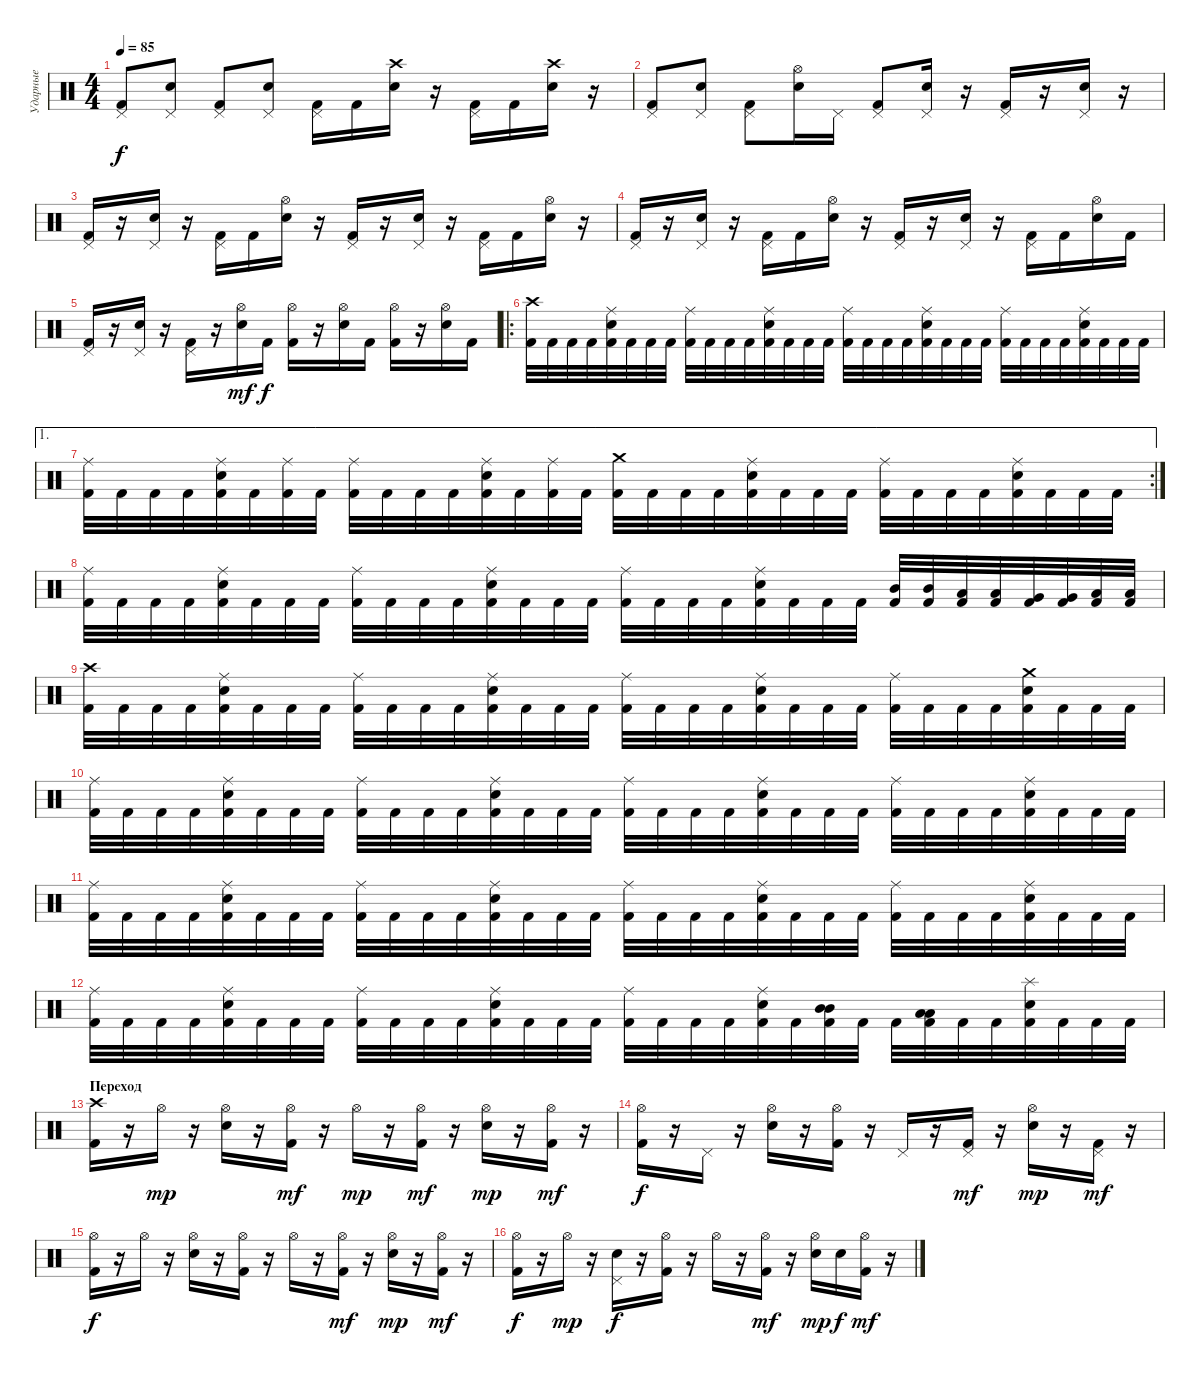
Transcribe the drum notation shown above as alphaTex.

\track ("Ударные" "Ударные") {instrument percussion}
\staff {score}
\articulation defaults
\ts (4 4)
\tempo 85
\clef neutral
\ks c
("Pedal Hi-Hat (hit)" "Kick (hit) 2").8{dy f} ("Pedal Hi-Hat (hit)" "Snare (hit) 2").8 ("Pedal Hi-Hat (hit)" "Kick (hit) 2").8 ("Pedal Hi-Hat (hit)" "Snare (hit) 2").8 ("Pedal Hi-Hat (hit)" "Kick (hit) 2").16 "Kick (hit) 2".16 ("Crash high (hit)" "Snare (hit) 2").16 r.16 ("Pedal Hi-Hat (hit)" "Kick (hit) 2").16 "Kick (hit) 2".16 ("Crash high (hit)" "Snare (hit) 2").16 r.16 |
("Pedal Hi-Hat (hit)" "Kick (hit) 2").8 ("Pedal Hi-Hat (hit)" "Snare (hit) 2").8 ("Pedal Hi-Hat (hit)" "Kick (hit) 2").8 ("Hi-Hat (open)" "Snare (hit) 2").16 "Pedal Hi-Hat (hit)".16 ("Pedal Hi-Hat (hit)" "Kick (hit) 2").8 ("Pedal Hi-Hat (hit)" "Snare (hit) 2").16 r.16 ("Pedal Hi-Hat (hit)" "Kick (hit) 2").16 r.16 ("Pedal Hi-Hat (hit)" "Snare (hit) 2").16 r.16 |
("Pedal Hi-Hat (hit)" "Kick (hit) 2").16 r.16 ("Pedal Hi-Hat (hit)" "Snare (hit) 2").16 r.16 ("Pedal Hi-Hat (hit)" "Kick (hit) 2").16 "Kick (hit) 2".16 ("Hi-Hat (open)" "Snare (hit) 2").16 r.16 ("Pedal Hi-Hat (hit)" "Kick (hit) 2").16 r.16 ("Pedal Hi-Hat (hit)" "Snare (hit) 2").16 r.16 ("Pedal Hi-Hat (hit)" "Kick (hit) 2").16 "Kick (hit) 2".16 ("Hi-Hat (open)" "Snare (hit) 2").16 r.16 |
("Pedal Hi-Hat (hit)" "Kick (hit) 2").16 r.16 ("Pedal Hi-Hat (hit)" "Snare (hit) 2").16 r.16 ("Pedal Hi-Hat (hit)" "Kick (hit) 2").16 "Kick (hit) 2".16 ("Hi-Hat (open)" "Snare (hit) 2").16 r.16 ("Pedal Hi-Hat (hit)" "Kick (hit) 2").16 r.16 ("Pedal Hi-Hat (hit)" "Snare (hit) 2").16 r.16 ("Pedal Hi-Hat (hit)" "Kick (hit) 2").16 "Kick (hit) 2".16 ("Hi-Hat (open)" "Snare (hit) 2").16 "Kick (hit) 2".16 |
("Pedal Hi-Hat (hit)" "Kick (hit) 2").16 r.16 ("Pedal Hi-Hat (hit)" "Snare (hit) 2").16 r.16 ("Pedal Hi-Hat (hit)" "Kick (hit) 2").16 r.16 ("Hi-Hat (open)" "Snare (hit) 2").16{dy mf} "Kick (hit) 2".16{dy f} ("Hi-Hat (open)" "Kick (hit) 2").16 r.16 ("Hi-Hat (open)" "Snare (hit) 2").16 "Kick (hit) 2".16 ("Hi-Hat (open)" "Kick (hit) 2").16 r.16 ("Hi-Hat (open)" "Snare (hit) 2").16 "Kick (hit) 2".16 |
\ro
("Crash high (hit)" "Kick (hit) 2").32 "Kick (hit) 2".32 "Kick (hit) 2".32 "Kick (hit) 2".32 ("Ride (middle)" "Snare (hit) 2" "Kick (hit) 2").32 "Kick (hit) 2".32 "Kick (hit) 2".32 "Kick (hit) 2".32 ("Ride (middle)" "Kick (hit) 2").32 "Kick (hit) 2".32 "Kick (hit) 2".32 "Kick (hit) 2".32 ("Ride (middle)" "Snare (hit) 2" "Kick (hit) 2").32 "Kick (hit) 2".32 "Kick (hit) 2".32 "Kick (hit) 2".32 ("Ride (middle)" "Kick (hit) 2").32 "Kick (hit) 2".32 "Kick (hit) 2".32 "Kick (hit) 2".32 ("Ride (middle)" "Snare (hit) 2" "Kick (hit) 2").32 "Kick (hit) 2".32 "Kick (hit) 2".32 "Kick (hit) 2".32 ("Ride (middle)" "Kick (hit) 2").32 "Kick (hit) 2".32 "Kick (hit) 2".32 "Kick (hit) 2".32 ("Ride (middle)" "Snare (hit) 2" "Kick (hit) 2").32 "Kick (hit) 2".32 "Kick (hit) 2".32 "Kick (hit) 2".32 |
\ae 1
\rc 2
("Ride (middle)" "Kick (hit) 2").32 "Kick (hit) 2".32 "Kick (hit) 2".32 "Kick (hit) 2".32 ("Ride (middle)" "Snare (hit) 2" "Kick (hit) 2").32 "Kick (hit) 2".32 ("Ride (middle)" "Kick (hit) 2").32 "Kick (hit) 2".32 ("Ride (middle)" "Kick (hit) 2").32 "Kick (hit) 2".32 "Kick (hit) 2".32 "Kick (hit) 2".32 ("Ride (middle)" "Snare (hit) 2" "Kick (hit) 2").32 "Kick (hit) 2".32 ("Ride (middle)" "Kick (hit) 2").32 "Kick (hit) 2".32 ("Crash medium (hit)" "Kick (hit) 2").32 "Kick (hit) 2".32 "Kick (hit) 2".32 "Kick (hit) 2".32 ("Ride (middle)" "Snare (hit) 2" "Kick (hit) 2").32 "Kick (hit) 2".32 "Kick (hit) 2".32 "Kick (hit) 2".32 ("Ride (middle)" "Kick (hit) 2").32 "Kick (hit) 2".32 "Kick (hit) 2".32 "Kick (hit) 2".32 ("Ride (middle)" "Snare (hit) 2" "Kick (hit) 2").32 "Kick (hit) 2".32 "Kick (hit) 2".32 "Kick (hit) 2".32 |
("Ride (middle)" "Kick (hit) 2").32 "Kick (hit) 2".32 "Kick (hit) 2".32 "Kick (hit) 2".32 ("Ride (middle)" "Snare (hit) 2" "Kick (hit) 2").32 "Kick (hit) 2".32 "Kick (hit) 2".32 "Kick (hit) 2".32 ("Ride (middle)" "Kick (hit) 2").32 "Kick (hit) 2".32 "Kick (hit) 2".32 "Kick (hit) 2".32 ("Ride (middle)" "Snare (hit) 2" "Kick (hit) 2").32 "Kick (hit) 2".32 "Kick (hit) 2".32 "Kick (hit) 2".32 ("Ride (middle)" "Kick (hit) 2").32 "Kick (hit) 2".32 "Kick (hit) 2".32 "Kick (hit) 2".32 ("Ride (middle)" "Snare (hit) 2" "Kick (hit) 2").32 "Kick (hit) 2".32 "Kick (hit) 2".32 "Kick (hit) 2".32 ("Mid Tom (hit)" "Kick (hit) 2").32 ("Mid Tom (hit)" "Kick (hit) 2").32 ("Low Tom (hit)" "Kick (hit) 2").32 ("Low Tom (hit)" "Kick (hit) 2").32 ("Very Low Tom (hit)" "Kick (hit) 2").32 ("Very Low Tom (hit)" "Kick (hit) 2").32 ("Low Floor Tom (hit)" "Kick (hit) 2").32 ("Low Floor Tom (hit)" "Kick (hit) 2").32 |
("Crash high (hit)" "Kick (hit) 2").32 "Kick (hit) 2".32 "Kick (hit) 2".32 "Kick (hit) 2".32 ("Ride (middle)" "Snare (hit) 2" "Kick (hit) 2").32 "Kick (hit) 2".32 "Kick (hit) 2".32 "Kick (hit) 2".32 ("Ride (middle)" "Kick (hit) 2").32 "Kick (hit) 2".32 "Kick (hit) 2".32 "Kick (hit) 2".32 ("Ride (middle)" "Snare (hit) 2" "Kick (hit) 2").32 "Kick (hit) 2".32 "Kick (hit) 2".32 "Kick (hit) 2".32 ("Ride (middle)" "Kick (hit) 2").32 "Kick (hit) 2".32 "Kick (hit) 2".32 "Kick (hit) 2".32 ("Ride (middle)" "Snare (hit) 2" "Kick (hit) 2").32 "Kick (hit) 2".32 "Kick (hit) 2".32 "Kick (hit) 2".32 ("Ride (middle)" "Kick (hit) 2").32 "Kick (hit) 2".32 "Kick (hit) 2".32 "Kick (hit) 2".32 ("Crash medium (hit)" "Snare (hit) 2" "Kick (hit) 2").32 "Kick (hit) 2".32 "Kick (hit) 2".32 "Kick (hit) 2".32 |
("Ride (middle)" "Kick (hit) 2").32 "Kick (hit) 2".32 "Kick (hit) 2".32 "Kick (hit) 2".32 ("Ride (middle)" "Snare (hit) 2" "Kick (hit) 2").32 "Kick (hit) 2".32 "Kick (hit) 2".32 "Kick (hit) 2".32 ("Ride (middle)" "Kick (hit) 2").32 "Kick (hit) 2".32 "Kick (hit) 2".32 "Kick (hit) 2".32 ("Ride (middle)" "Snare (hit) 2" "Kick (hit) 2").32 "Kick (hit) 2".32 "Kick (hit) 2".32 "Kick (hit) 2".32 ("Ride (middle)" "Kick (hit) 2").32 "Kick (hit) 2".32 "Kick (hit) 2".32 "Kick (hit) 2".32 ("Ride (middle)" "Snare (hit) 2" "Kick (hit) 2").32 "Kick (hit) 2".32 "Kick (hit) 2".32 "Kick (hit) 2".32 ("Ride (middle)" "Kick (hit) 2").32 "Kick (hit) 2".32 "Kick (hit) 2".32 "Kick (hit) 2".32 ("Ride (middle)" "Snare (hit) 2" "Kick (hit) 2").32 "Kick (hit) 2".32 "Kick (hit) 2".32 "Kick (hit) 2".32 |
("Ride (middle)" "Kick (hit) 2").32 "Kick (hit) 2".32 "Kick (hit) 2".32 "Kick (hit) 2".32 ("Ride (middle)" "Snare (hit) 2" "Kick (hit) 2").32 "Kick (hit) 2".32 "Kick (hit) 2".32 "Kick (hit) 2".32 ("Ride (middle)" "Kick (hit) 2").32 "Kick (hit) 2".32 "Kick (hit) 2".32 "Kick (hit) 2".32 ("Ride (middle)" "Snare (hit) 2" "Kick (hit) 2").32 "Kick (hit) 2".32 "Kick (hit) 2".32 "Kick (hit) 2".32 ("Ride (middle)" "Kick (hit) 2").32 "Kick (hit) 2".32 "Kick (hit) 2".32 "Kick (hit) 2".32 ("Ride (middle)" "Snare (hit) 2" "Kick (hit) 2").32 "Kick (hit) 2".32 "Kick (hit) 2".32 "Kick (hit) 2".32 ("Ride (middle)" "Kick (hit) 2").32 "Kick (hit) 2".32 "Kick (hit) 2".32 "Kick (hit) 2".32 ("Ride (middle)" "Snare (hit) 2" "Kick (hit) 2").32 "Kick (hit) 2".32 "Kick (hit) 2".32 "Kick (hit) 2".32 |
("Ride (middle)" "Kick (hit) 2").32 "Kick (hit) 2".32 "Kick (hit) 2".32 "Kick (hit) 2".32 ("Ride (middle)" "Snare (hit) 2" "Kick (hit) 2").32 "Kick (hit) 2".32 "Kick (hit) 2".32 "Kick (hit) 2".32 ("Ride (middle)" "Kick (hit) 2").32 "Kick (hit) 2".32 "Kick (hit) 2".32 "Kick (hit) 2".32 ("Ride (middle)" "Snare (hit) 2" "Kick (hit) 2").32 "Kick (hit) 2".32 "Kick (hit) 2".32 "Kick (hit) 2".32 ("Ride (middle)" "Kick (hit) 2").32 "Kick (hit) 2".32 "Kick (hit) 2".32 "Kick (hit) 2".32 ("Ride (middle)" "Snare (hit) 2" "Kick (hit) 2").32 "Kick (hit) 2".32 ("Mid Tom (hit)" "Mid Tom (hit)" "Kick (hit) 2").32 "Kick (hit) 2".32 "Kick (hit) 2".32 ("Low Tom (hit)" "Low Tom (hit)" "Kick (hit) 2").32 "Kick (hit) 2".32 "Kick (hit) 2".32 ("Splash (hit)" "Snare (hit) 2" "Kick (hit) 2").32 "Kick (hit) 2".32 "Kick (hit) 2".32 "Kick (hit) 2".32 |
\section ("" "Переход")
("Crash high (hit)" "Kick (hit) 2").16 r.16 "Hi-Hat (open)".16{dy mp} r.16 ("Hi-Hat (open)" "Snare (hit) 2").16 r.16 ("Hi-Hat (open)" "Kick (hit) 2").16{dy mf} r.16 "Hi-Hat (open)".16{dy mp} r.16 ("Hi-Hat (open)" "Kick (hit) 2").16{dy mf} r.16 ("Hi-Hat (open)" "Snare (hit) 2").16{dy mp} r.16 ("Hi-Hat (open)" "Kick (hit) 2").16{dy mf} r.16 |
("Hi-Hat (open)" "Kick (hit) 2").16{dy f} r.16 "Pedal Hi-Hat (hit)".16 r.16 ("Hi-Hat (open)" "Snare (hit) 2").16 r.16 ("Hi-Hat (open)" "Kick (hit) 2").16 r.16 "Pedal Hi-Hat (hit)".16 r.16 ("Pedal Hi-Hat (hit)" "Kick (hit) 2").16{dy mf} r.16 ("Hi-Hat (open)" "Snare (hit) 2").16{dy mp} r.16 ("Pedal Hi-Hat (hit)" "Kick (hit) 2").16{dy mf} r.16 |
("Hi-Hat (open)" "Kick (hit) 2").16{dy f} r.16 "Hi-Hat (open)".16 r.16 ("Hi-Hat (open)" "Snare (hit) 2").16 r.16 ("Hi-Hat (open)" "Kick (hit) 2").16 r.16 "Hi-Hat (open)".16 r.16 ("Hi-Hat (open)" "Kick (hit) 2").16{dy mf} r.16 ("Hi-Hat (open)" "Snare (hit) 2").16{dy mp} r.16 ("Hi-Hat (open)" "Kick (hit) 2").16{dy mf} r.16 |
("Hi-Hat (open)" "Kick (hit) 2").16{dy f} r.16 "Hi-Hat (open)".16{dy mp} r.16 ("Pedal Hi-Hat (hit)" "Snare (hit) 2").16{dy f} r.16 ("Hi-Hat (open)" "Kick (hit) 2").16 r.16 "Hi-Hat (open)".16 r.16 ("Hi-Hat (open)" "Kick (hit) 2").16{dy mf} r.16 ("Hi-Hat (open)" "Snare (hit) 2").16{dy mp} "Snare (hit) 2".16{dy f} ("Hi-Hat (open)" "Kick (hit) 2").16{dy mf} r.16
